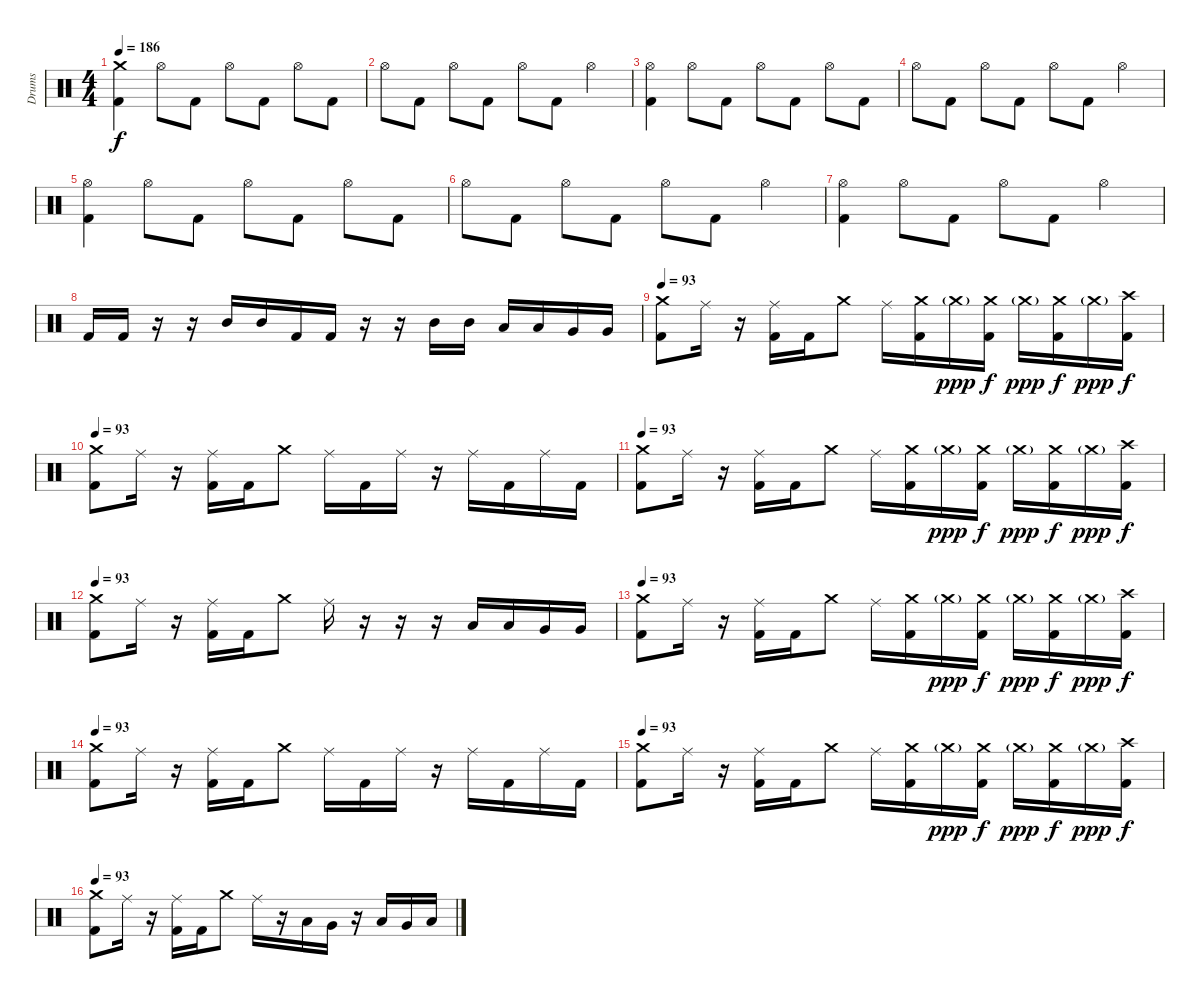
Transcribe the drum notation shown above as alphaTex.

\track ("Drums" "Drums") {instrument percussion}
\staff {score}
\articulation defaults
\ts (4 4)
\tempo 186
\clef neutral
\ks c
("Crash medium (hit)" "Kick (hit) 2").4{dy f} "Hi-Hat (open)".8 "Kick (hit) 2".8 "Hi-Hat (open)".8 "Kick (hit) 2".8 "Hi-Hat (open)".8 "Kick (hit) 2".8 |
"Hi-Hat (open)".8 "Kick (hit) 2".8 "Hi-Hat (open)".8 "Kick (hit) 2".8 "Hi-Hat (open)".8 "Kick (hit) 2".8 "Hi-Hat (open)".4 |
("Hi-Hat (open)" "Kick (hit) 2").4 "Hi-Hat (open)".8 "Kick (hit) 2".8 "Hi-Hat (open)".8 "Kick (hit) 2".8 "Hi-Hat (open)".8 "Kick (hit) 2".8 |
"Hi-Hat (open)".8 "Kick (hit) 2".8 "Hi-Hat (open)".8 "Kick (hit) 2".8 "Hi-Hat (open)".8 "Kick (hit) 2".8 "Hi-Hat (open)".4 |
("Hi-Hat (open)" "Kick (hit) 2").4 "Hi-Hat (open)".8 "Kick (hit) 2".8 "Hi-Hat (open)".8 "Kick (hit) 2".8 "Hi-Hat (open)".8 "Kick (hit) 2".8 |
"Hi-Hat (open)".8 "Kick (hit) 2".8 "Hi-Hat (open)".8 "Kick (hit) 2".8 "Hi-Hat (open)".8 "Kick (hit) 2".8 "Hi-Hat (open)".4 |
("Hi-Hat (open)" "Kick (hit) 2").4 "Hi-Hat (open)".8 "Kick (hit) 2".8 "Hi-Hat (open)".8 "Kick (hit) 2".8 "Hi-Hat (open)".4 |
"Kick (hit) 2".16 "Kick (hit) 2".16 r.16 r.16 "Mid Tom (hit)".16 "Mid Tom (hit)".16 "Kick (hit) 2".16 "Kick (hit) 2".16 r.16 r.16 "Mid Tom (hit)".16 "Mid Tom (hit)".16 "Low Tom (hit)".16 "Low Tom (hit)".16 "Very Low Tom (hit)".16 "Very Low Tom (hit)".16 |
\tempo 93
("Crash medium (hit)" "Kick (hit) 2").8 "Ride (middle)".16 r.16 ("Ride (middle)" "Kick (hit) 2").16 "Kick (hit) 2".16 "Crash medium (hit)".8 "Ride (middle)".16 ("Crash medium (hit)" "Kick (hit) 2").16 "Crash medium (hit)"{g}.16{dy ppp} ("Crash medium (hit)" "Kick (hit) 2").16{dy f} "Crash medium (hit)"{g}.16{dy ppp} ("Crash medium (hit)" "Kick (hit) 2").16{dy f} "Crash medium (hit)"{g}.16{dy ppp} ("Crash high (hit)" "Kick (hit) 2").16{dy f} |
\tempo 93
("Crash medium (hit)" "Kick (hit) 2").8 "Ride (middle)".16 r.16 ("Ride (middle)" "Kick (hit) 2").16 "Kick (hit) 2".16 "Crash medium (hit)".8 "Ride (middle)".16 "Kick (hit) 2".16 "Ride (middle)".16 r.16 "Ride (middle)".16 "Kick (hit) 2".16 "Ride (middle)".16 "Kick (hit) 2".16 |
\tempo 93
("Crash medium (hit)" "Kick (hit) 2").8 "Ride (middle)".16 r.16 ("Ride (middle)" "Kick (hit) 2").16 "Kick (hit) 2".16 "Crash medium (hit)".8 "Ride (middle)".16 ("Crash medium (hit)" "Kick (hit) 2").16 "Crash medium (hit)"{g}.16{dy ppp} ("Crash medium (hit)" "Kick (hit) 2").16{dy f} "Crash medium (hit)"{g}.16{dy ppp} ("Crash medium (hit)" "Kick (hit) 2").16{dy f} "Crash medium (hit)"{g}.16{dy ppp} ("Crash high (hit)" "Kick (hit) 2").16{dy f} |
\tempo 93
("Crash medium (hit)" "Kick (hit) 2").8 "Ride (middle)".16 r.16 ("Ride (middle)" "Kick (hit) 2").16 "Kick (hit) 2".16 "Crash medium (hit)".8 "Ride (middle)".16 r.16 r.16 r.16 "Low Tom (hit)".16 "Low Tom (hit)".16 "Very Low Tom (hit)".16 "Very Low Tom (hit)".16 |
\tempo 93
("Crash medium (hit)" "Kick (hit) 2").8 "Ride (middle)".16 r.16 ("Ride (middle)" "Kick (hit) 2").16 "Kick (hit) 2".16 "Crash medium (hit)".8 "Ride (middle)".16 ("Crash medium (hit)" "Kick (hit) 2").16 "Crash medium (hit)"{g}.16{dy ppp} ("Crash medium (hit)" "Kick (hit) 2").16{dy f} "Crash medium (hit)"{g}.16{dy ppp} ("Crash medium (hit)" "Kick (hit) 2").16{dy f} "Crash medium (hit)"{g}.16{dy ppp} ("Crash high (hit)" "Kick (hit) 2").16{dy f} |
\tempo 93
("Crash medium (hit)" "Kick (hit) 2").8 "Ride (middle)".16 r.16 ("Ride (middle)" "Kick (hit) 2").16 "Kick (hit) 2".16 "Crash medium (hit)".8 "Ride (middle)".16 "Kick (hit) 2".16 "Ride (middle)".16 r.16 "Ride (middle)".16 "Kick (hit) 2".16 "Ride (middle)".16 "Kick (hit) 2".16 |
\tempo 93
("Crash medium (hit)" "Kick (hit) 2").8 "Ride (middle)".16 r.16 ("Ride (middle)" "Kick (hit) 2").16 "Kick (hit) 2".16 "Crash medium (hit)".8 "Ride (middle)".16 ("Crash medium (hit)" "Kick (hit) 2").16 "Crash medium (hit)"{g}.16{dy ppp} ("Crash medium (hit)" "Kick (hit) 2").16{dy f} "Crash medium (hit)"{g}.16{dy ppp} ("Crash medium (hit)" "Kick (hit) 2").16{dy f} "Crash medium (hit)"{g}.16{dy ppp} ("Crash high (hit)" "Kick (hit) 2").16{dy f} |
\tempo 93
("Crash medium (hit)" "Kick (hit) 2").8 "Ride (middle)".16 r.16 ("Ride (middle)" "Kick (hit) 2").16 "Kick (hit) 2".16 "Crash medium (hit)".8 "Ride (middle)".16 r.16 "Low Tom (hit)".16 "Very Low Tom (hit)".16 r.16 "Low Tom (hit)".16 "Very Low Tom (hit)".16 "Low Floor Tom (hit)".16
